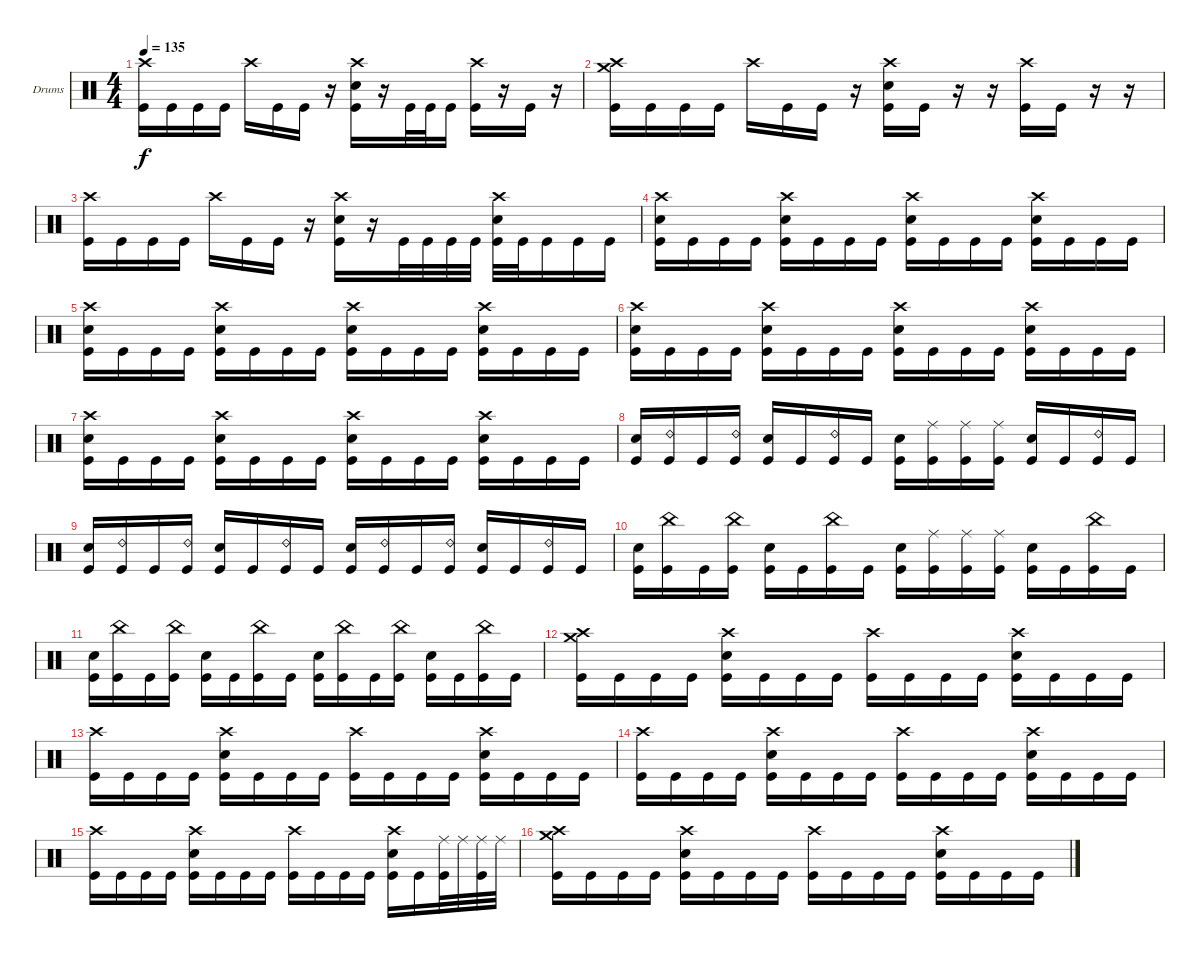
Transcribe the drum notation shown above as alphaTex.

\bracketExtendMode groupsimilarinstruments
\firstSystemTrackNameOrientation horizontal
\otherSystemsTrackNameOrientation horizontal
\track ("Drumkit" "Drums") {instrument percussion}
\staff {score}
\articulation defaults
\ts (4 4)
\tempo 135
\clef neutral
\ks c
("Crash high (hit)" "Kick (hit)").16{dy f} "Kick (hit)".16 "Kick (hit)".16 "Kick (hit)".16 "Crash high (hit)".16 "Kick (hit)".16 "Kick (hit)".16 r.16 ("Crash high (hit)" "Snare (hit) 2" "Kick (hit)").16 r.16 "Kick (hit)".32 "Kick (hit)".32 "Kick (hit)".16 ("Crash high (hit)" "Kick (hit)").16 r.16 "Kick (hit)".16 r.16 |
("Crash high (hit)" "Crash medium (hit)" "Kick (hit)").16 "Kick (hit)".16 "Kick (hit)".16 "Kick (hit)".16 "Crash high (hit)".16 "Kick (hit)".16 "Kick (hit)".16 r.16 ("Crash high (hit)" "Snare (hit) 2" "Kick (hit)").16 "Kick (hit)".16 r.16 r.16 ("Crash high (hit)" "Kick (hit)").16 "Kick (hit)".16 r.16 r.16 |
("Crash high (hit)" "Kick (hit)").16 "Kick (hit)".16 "Kick (hit)".16 "Kick (hit)".16 "Crash high (hit)".16 "Kick (hit)".16 "Kick (hit)".16 r.16 ("Crash high (hit)" "Snare (hit) 2" "Kick (hit)").16 r.16 "Kick (hit)".32 "Kick (hit)".32 "Kick (hit)".32 "Kick (hit)".32 ("Crash high (hit)" "Snare (hit) 2" "Kick (hit)").32 "Kick (hit)".32 "Kick (hit)".16 "Kick (hit)".16 "Kick (hit)".16 |
("Crash high (hit)" "Snare (hit) 2" "Kick (hit)").16 "Kick (hit)".16 "Kick (hit)".16 "Kick (hit)".16 ("Crash high (hit)" "Snare (hit) 2" "Kick (hit)").16 "Kick (hit)".16 "Kick (hit)".16 "Kick (hit)".16 ("Crash high (hit)" "Snare (hit) 2" "Kick (hit)").16 "Kick (hit)".16 "Kick (hit)".16 "Kick (hit)".16 ("Crash high (hit)" "Snare (hit) 2" "Kick (hit)").16 "Kick (hit)".16 "Kick (hit)".16 "Kick (hit)".16 |
("Crash high (hit)" "Snare (hit) 2" "Kick (hit)").16 "Kick (hit)".16 "Kick (hit)".16 "Kick (hit)".16 ("Crash high (hit)" "Snare (hit) 2" "Kick (hit)").16 "Kick (hit)".16 "Kick (hit)".16 "Kick (hit)".16 ("Crash high (hit)" "Snare (hit) 2" "Kick (hit)").16 "Kick (hit)".16 "Kick (hit)".16 "Kick (hit)".16 ("Crash high (hit)" "Snare (hit) 2" "Kick (hit)").16 "Kick (hit)".16 "Kick (hit)".16 "Kick (hit)".16 |
("Crash high (hit)" "Snare (hit) 2" "Kick (hit)").16 "Kick (hit)".16 "Kick (hit)".16 "Kick (hit)".16 ("Crash high (hit)" "Snare (hit) 2" "Kick (hit)").16 "Kick (hit)".16 "Kick (hit)".16 "Kick (hit)".16 ("Crash high (hit)" "Snare (hit) 2" "Kick (hit)").16 "Kick (hit)".16 "Kick (hit)".16 "Kick (hit)".16 ("Crash high (hit)" "Snare (hit) 2" "Kick (hit)").16 "Kick (hit)".16 "Kick (hit)".16 "Kick (hit)".16 |
("Crash high (hit)" "Snare (hit) 2" "Kick (hit)").16 "Kick (hit)".16 "Kick (hit)".16 "Kick (hit)".16 ("Crash high (hit)" "Snare (hit) 2" "Kick (hit)").16 "Kick (hit)".16 "Kick (hit)".16 "Kick (hit)".16 ("Crash high (hit)" "Snare (hit) 2" "Kick (hit)").16 "Kick (hit)".16 "Kick (hit)".16 "Kick (hit)".16 ("Crash high (hit)" "Snare (hit) 2" "Kick (hit)").16 "Kick (hit)".16 "Kick (hit)".16 "Kick (hit)".16 |
("Snare (hit) 2" "Kick (hit)").16 ("Ride (bell) 2" "Kick (hit)").16 "Kick (hit)".16 ("Ride (bell) 2" "Kick (hit)").16 ("Snare (hit) 2" "Kick (hit)").16 "Kick (hit)".16 ("Ride (bell) 2" "Kick (hit)").16 "Kick (hit)".16 ("Snare (hit) 2" "Kick (hit)").16 ("Ride (middle)" "Kick (hit)").16 ("Ride (middle)" "Kick (hit)").16 ("Ride (middle)" "Kick (hit)").16 ("Snare (hit) 2" "Kick (hit)").16 "Kick (hit)".16 ("Ride (bell) 2" "Kick (hit)").16 "Kick (hit)".16 |
("Snare (hit) 2" "Kick (hit)").16 ("Ride (bell) 2" "Kick (hit)").16 "Kick (hit)".16 ("Ride (bell) 2" "Kick (hit)").16 ("Snare (hit) 2" "Kick (hit)").16 "Kick (hit)".16 ("Ride (bell) 2" "Kick (hit)").16 "Kick (hit)".16 ("Snare (hit) 2" "Kick (hit)").16 ("Ride (bell) 2" "Kick (hit)").16 "Kick (hit)".16 ("Ride (bell) 2" "Kick (hit)").16 ("Snare (hit) 2" "Kick (hit)").16 "Kick (hit)".16 ("Ride (bell) 2" "Kick (hit)").16 "Kick (hit)".16 |
("Snare (hit) 2" "Kick (hit)").16 ("China (hit)" "Kick (hit)").16 "Kick (hit)".16 ("China (hit)" "Kick (hit)").16 ("Snare (hit) 2" "Kick (hit)").16 "Kick (hit)".16 ("China (hit)" "Kick (hit)").16 "Kick (hit)".16 ("Snare (hit) 2" "Kick (hit)").16 ("Ride (middle)" "Kick (hit)").16 ("Ride (middle)" "Kick (hit)").16 ("Ride (middle)" "Kick (hit)").16 ("Snare (hit) 2" "Kick (hit)").16 "Kick (hit)".16 ("China (hit)" "Kick (hit)").16 "Kick (hit)".16 |
("Snare (hit) 2" "Kick (hit)").16 ("China (hit)" "Kick (hit)").16 "Kick (hit)".16 ("China (hit)" "Kick (hit)").16 ("Snare (hit) 2" "Kick (hit)").16 "Kick (hit)".16 ("China (hit)" "Kick (hit)").16 "Kick (hit)".16 ("Snare (hit) 2" "Kick (hit)").16 ("China (hit)" "Kick (hit)").16 "Kick (hit)".16 ("China (hit)" "Kick (hit)").16 ("Snare (hit) 2" "Kick (hit)").16 "Kick (hit)".16 ("China (hit)" "Kick (hit)").16 "Kick (hit)".16 |
("Crash medium (hit)" "Crash high (hit)" "Kick (hit)").16 "Kick (hit)".16 "Kick (hit)".16 "Kick (hit)".16 ("Crash high (hit)" "Snare (hit) 2" "Kick (hit)").16 "Kick (hit)".16 "Kick (hit)".16 "Kick (hit)".16 ("Crash high (hit)" "Kick (hit)").16 "Kick (hit)".16 "Kick (hit)".16 "Kick (hit)".16 ("Crash high (hit)" "Snare (hit) 2" "Kick (hit)").16 "Kick (hit)".16 "Kick (hit)".16 "Kick (hit)".16 |
("Crash high (hit)" "Kick (hit)").16 "Kick (hit)".16 "Kick (hit)".16 "Kick (hit)".16 ("Crash high (hit)" "Snare (hit) 2" "Kick (hit)").16 "Kick (hit)".16 "Kick (hit)".16 "Kick (hit)".16 ("Crash high (hit)" "Kick (hit)").16 "Kick (hit)".16 "Kick (hit)".16 "Kick (hit)".16 ("Crash high (hit)" "Snare (hit) 2" "Kick (hit)").16 "Kick (hit)".16 "Kick (hit)".16 "Kick (hit)".16 |
("Crash high (hit)" "Kick (hit)").16 "Kick (hit)".16 "Kick (hit)".16 "Kick (hit)".16 ("Crash high (hit)" "Snare (hit) 2" "Kick (hit)").16 "Kick (hit)".16 "Kick (hit)".16 "Kick (hit)".16 ("Crash high (hit)" "Kick (hit)").16 "Kick (hit)".16 "Kick (hit)".16 "Kick (hit)".16 ("Crash high (hit)" "Snare (hit) 2" "Kick (hit)").16 "Kick (hit)".16 "Kick (hit)".16 "Kick (hit)".16 |
("Crash high (hit)" "Kick (hit)").16 "Kick (hit)".16 "Kick (hit)".16 "Kick (hit)".16 ("Crash high (hit)" "Snare (hit) 2" "Kick (hit)").16 "Kick (hit)".16 "Kick (hit)".16 "Kick (hit)".16 ("Crash high (hit)" "Kick (hit)").16 "Kick (hit)".16 "Kick (hit)".16 "Kick (hit)".16 ("Crash high (hit)" "Snare (hit) 2" "Kick (hit)").16 "Kick (hit)".16 ("Ride (middle)" "Kick (hit)").32 "Ride (middle)".32 ("Ride (middle)" "Kick (hit)").32 "Ride (middle)".32 |
("Crash high (hit)" "Crash medium (hit)" "Kick (hit)").16 "Kick (hit)".16 "Kick (hit)".16 "Kick (hit)".16 ("Crash high (hit)" "Snare (hit) 2" "Kick (hit)").16 "Kick (hit)".16 "Kick (hit)".16 "Kick (hit)".16 ("Crash high (hit)" "Kick (hit)").16 "Kick (hit)".16 "Kick (hit)".16 "Kick (hit)".16 ("Crash high (hit)" "Snare (hit) 2" "Kick (hit)").16 "Kick (hit)".16 "Kick (hit)".16 "Kick (hit)".16
